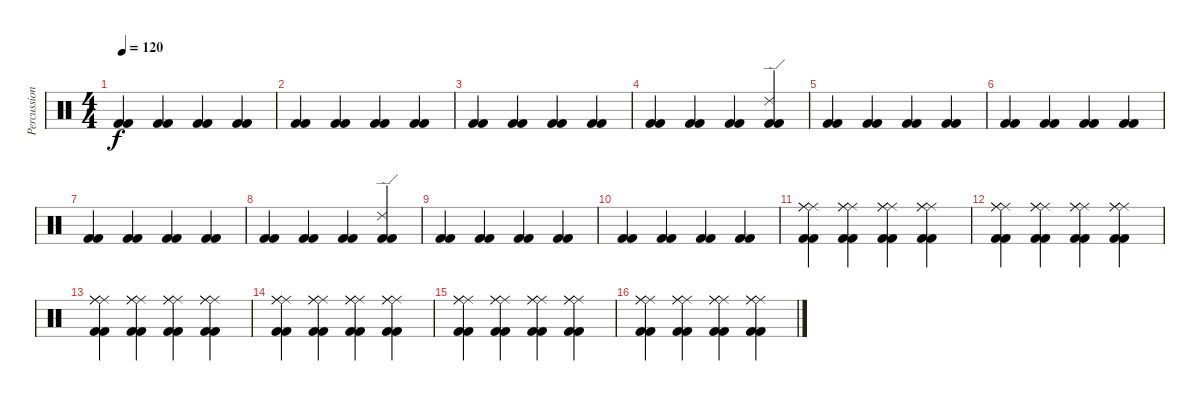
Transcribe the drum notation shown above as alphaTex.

\track ("Percussioni" "Percussion") {instrument percussion}
\staff {score}
\articulation defaults
\ts (4 4)
\tempo 120
\clef neutral
\ks c
("Kick (hit) 2" "Kick (hit) 2").4{dy f} ("Kick (hit) 2" "Kick (hit) 2").4 ("Kick (hit) 2" "Kick (hit) 2").4 ("Kick (hit) 2" "Kick (hit) 2").4 |
("Kick (hit) 2" "Kick (hit) 2").4 ("Kick (hit) 2" "Kick (hit) 2").4 ("Kick (hit) 2" "Kick (hit) 2").4 ("Kick (hit) 2" "Kick (hit) 2").4 |
("Kick (hit) 2" "Kick (hit) 2").4 ("Kick (hit) 2" "Kick (hit) 2").4 ("Kick (hit) 2" "Kick (hit) 2").4 ("Kick (hit) 2" "Kick (hit) 2").4 |
("Kick (hit) 2" "Kick (hit) 2").4 ("Kick (hit) 2" "Kick (hit) 2").4 ("Kick (hit) 2" "Kick (hit) 2").4 ("Kick (hit) 2" "Kick (hit) 2" "Ride (edge) 2").4 |
("Kick (hit) 2" "Kick (hit) 2").4 ("Kick (hit) 2" "Kick (hit) 2").4 ("Kick (hit) 2" "Kick (hit) 2").4 ("Kick (hit) 2" "Kick (hit) 2").4 |
("Kick (hit) 2" "Kick (hit) 2").4 ("Kick (hit) 2" "Kick (hit) 2").4 ("Kick (hit) 2" "Kick (hit) 2").4 ("Kick (hit) 2" "Kick (hit) 2").4 |
("Kick (hit) 2" "Kick (hit) 2").4 ("Kick (hit) 2" "Kick (hit) 2").4 ("Kick (hit) 2" "Kick (hit) 2").4 ("Kick (hit) 2" "Kick (hit) 2").4 |
("Kick (hit) 2" "Kick (hit) 2").4 ("Kick (hit) 2" "Kick (hit) 2").4 ("Kick (hit) 2" "Kick (hit) 2").4 ("Kick (hit) 2" "Kick (hit) 2" "Ride (edge) 2").4 |
("Kick (hit) 2" "Kick (hit) 2").4 ("Kick (hit) 2" "Kick (hit) 2").4 ("Kick (hit) 2" "Kick (hit) 2").4 ("Kick (hit) 2" "Kick (hit) 2").4 |
("Kick (hit) 2" "Kick (hit) 2").4 ("Kick (hit) 2" "Kick (hit) 2").4 ("Kick (hit) 2" "Kick (hit) 2").4 ("Kick (hit) 2" "Kick (hit) 2").4 |
("Kick (hit) 2" "Kick (hit) 2" "Ride (middle)" "Ride (middle)" "Ride (middle)").4 ("Kick (hit) 2" "Kick (hit) 2" "Ride (middle)" "Ride (middle)" "Ride (middle)").4 ("Kick (hit) 2" "Kick (hit) 2" "Ride (middle)" "Ride (middle)" "Ride (middle)").4 ("Kick (hit) 2" "Kick (hit) 2" "Ride (middle)" "Ride (middle)" "Ride (middle)").4 |
("Kick (hit) 2" "Kick (hit) 2" "Ride (middle)" "Ride (middle)" "Ride (middle)").4 ("Kick (hit) 2" "Kick (hit) 2" "Ride (middle)" "Ride (middle)" "Ride (middle)").4 ("Kick (hit) 2" "Kick (hit) 2" "Ride (middle)" "Ride (middle)" "Ride (middle)").4 ("Kick (hit) 2" "Kick (hit) 2" "Ride (middle)" "Ride (middle)" "Ride (middle)").4 |
("Kick (hit) 2" "Kick (hit) 2" "Ride (middle)" "Ride (middle)" "Ride (middle)").4 ("Kick (hit) 2" "Kick (hit) 2" "Ride (middle)" "Ride (middle)" "Ride (middle)").4 ("Kick (hit) 2" "Kick (hit) 2" "Ride (middle)" "Ride (middle)" "Ride (middle)").4 ("Kick (hit) 2" "Kick (hit) 2" "Ride (middle)" "Ride (middle)" "Ride (middle)").4 |
("Kick (hit) 2" "Kick (hit) 2" "Ride (middle)" "Ride (middle)" "Ride (middle)").4 ("Kick (hit) 2" "Kick (hit) 2" "Ride (middle)" "Ride (middle)" "Ride (middle)").4 ("Kick (hit) 2" "Kick (hit) 2" "Ride (middle)" "Ride (middle)" "Ride (middle)").4 ("Kick (hit) 2" "Kick (hit) 2" "Ride (middle)" "Ride (middle)" "Ride (middle)").4 |
("Kick (hit) 2" "Kick (hit) 2" "Ride (middle)" "Ride (middle)" "Ride (middle)").4 ("Kick (hit) 2" "Kick (hit) 2" "Ride (middle)" "Ride (middle)" "Ride (middle)").4 ("Kick (hit) 2" "Kick (hit) 2" "Ride (middle)" "Ride (middle)" "Ride (middle)").4 ("Kick (hit) 2" "Kick (hit) 2" "Ride (middle)" "Ride (middle)" "Ride (middle)").4 |
("Kick (hit) 2" "Kick (hit) 2" "Ride (middle)" "Ride (middle)" "Ride (middle)").4 ("Kick (hit) 2" "Kick (hit) 2" "Ride (middle)" "Ride (middle)" "Ride (middle)").4 ("Kick (hit) 2" "Kick (hit) 2" "Ride (middle)" "Ride (middle)" "Ride (middle)").4 ("Kick (hit) 2" "Kick (hit) 2" "Ride (middle)" "Ride (middle)" "Ride (middle)").4
